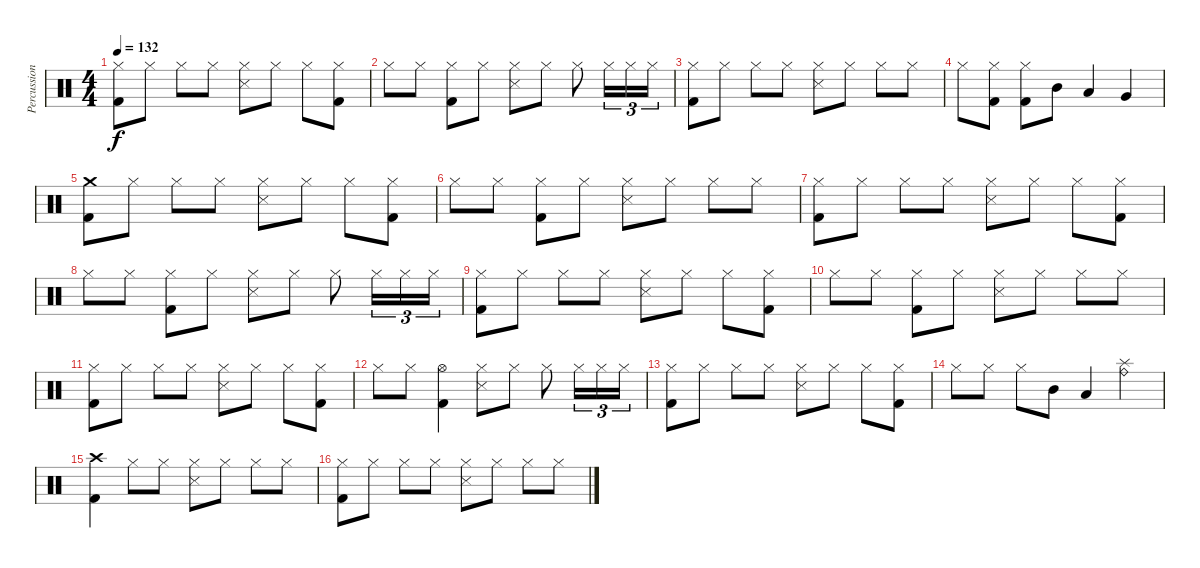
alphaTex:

\track ("Percussion" "Percussion") {instrument percussion}
\staff {score}
\articulation defaults
\ts (4 4)
\tempo 132
\clef neutral
\ks c
("Hi-Hat (closed)" "Kick (hit) 2").8{dy f} "Hi-Hat (closed)".8 "Hi-Hat (closed)".8 "Hi-Hat (closed)".8 ("Hi-Hat (closed)" "Snare (side stick) 3").8 "Hi-Hat (closed)".8 "Hi-Hat (closed)".8 ("Hi-Hat (closed)" "Kick (hit) 2").8 |
"Hi-Hat (closed)".8 "Hi-Hat (closed)".8 ("Hi-Hat (closed)" "Kick (hit) 2").8 "Hi-Hat (closed)".8 ("Hi-Hat (closed)" "Snare (side stick) 3").8 "Hi-Hat (closed)".8 "Hi-Hat (closed)".8 "Hi-Hat (closed)".16{tu (3 2)} "Hi-Hat (closed)".16{tu (3 2)} "Hi-Hat (closed)".16{tu (3 2)} |
("Hi-Hat (closed)" "Kick (hit) 2").8 "Hi-Hat (closed)".8 "Hi-Hat (closed)".8 "Hi-Hat (closed)".8 ("Hi-Hat (closed)" "Snare (side stick) 3").8 "Hi-Hat (closed)".8 "Hi-Hat (closed)".8 "Hi-Hat (closed)".8 |
"Hi-Hat (closed)".8 ("Hi-Hat (closed)" "Kick (hit) 2").8 ("Hi-Hat (closed)" "Kick (hit) 2").8 "Mid Tom (hit)".8 "Low Tom (hit)".4 "Very Low Tom (hit)".4 |
("Crash medium (hit)" "Kick (hit) 2").8 "Hi-Hat (closed)".8 "Hi-Hat (closed)".8 "Hi-Hat (closed)".8 ("Hi-Hat (closed)" "Snare (side stick) 3").8 "Hi-Hat (closed)".8 "Hi-Hat (closed)".8 ("Hi-Hat (closed)" "Kick (hit) 2").8 |
"Hi-Hat (closed)".8 "Hi-Hat (closed)".8 ("Hi-Hat (closed)" "Kick (hit) 2").8 "Hi-Hat (closed)".8 ("Hi-Hat (closed)" "Snare (side stick) 3").8 "Hi-Hat (closed)".8 "Hi-Hat (closed)".8 "Hi-Hat (closed)".8 |
("Hi-Hat (closed)" "Kick (hit) 2").8 "Hi-Hat (closed)".8 "Hi-Hat (closed)".8 "Hi-Hat (closed)".8 ("Hi-Hat (closed)" "Snare (side stick) 3").8 "Hi-Hat (closed)".8 "Hi-Hat (closed)".8 ("Hi-Hat (closed)" "Kick (hit) 2").8 |
"Hi-Hat (closed)".8 "Hi-Hat (closed)".8 ("Hi-Hat (closed)" "Kick (hit) 2").8 "Hi-Hat (closed)".8 ("Hi-Hat (closed)" "Snare (side stick) 3").8 "Hi-Hat (closed)".8 "Hi-Hat (closed)".8 "Hi-Hat (closed)".16{tu (3 2)} "Hi-Hat (closed)".16{tu (3 2)} "Hi-Hat (closed)".16{tu (3 2)} |
("Hi-Hat (closed)" "Kick (hit) 2").8 "Hi-Hat (closed)".8 "Hi-Hat (closed)".8 "Hi-Hat (closed)".8 ("Hi-Hat (closed)" "Snare (side stick) 3").8 "Hi-Hat (closed)".8 "Hi-Hat (closed)".8 ("Hi-Hat (closed)" "Kick (hit) 2").8 |
"Hi-Hat (closed)".8 "Hi-Hat (closed)".8 ("Hi-Hat (closed)" "Kick (hit) 2").8 "Hi-Hat (closed)".8 ("Hi-Hat (closed)" "Snare (side stick) 3").8 "Hi-Hat (closed)".8 "Hi-Hat (closed)".8 "Hi-Hat (closed)".8 |
("Hi-Hat (closed)" "Kick (hit) 2").8 "Hi-Hat (closed)".8 "Hi-Hat (closed)".8 "Hi-Hat (closed)".8 ("Hi-Hat (closed)" "Snare (side stick) 3").8 "Hi-Hat (closed)".8 "Hi-Hat (closed)".8 ("Hi-Hat (closed)" "Kick (hit) 2").8 |
"Hi-Hat (closed)".8 "Hi-Hat (closed)".8 ("Hi-Hat (open)" "Kick (hit) 2").4 ("Hi-Hat (closed)" "Snare (side stick) 3").8 "Hi-Hat (closed)".8 "Hi-Hat (closed)".8 "Hi-Hat (closed)".16{tu (3 2)} "Hi-Hat (closed)".16{tu (3 2)} "Hi-Hat (closed)".16{tu (3 2)} |
("Hi-Hat (closed)" "Kick (hit) 2").8 "Hi-Hat (closed)".8 "Hi-Hat (closed)".8 "Hi-Hat (closed)".8 ("Hi-Hat (closed)" "Snare (side stick) 3").8 "Hi-Hat (closed)".8 "Hi-Hat (closed)".8 ("Hi-Hat (closed)" "Kick (hit) 2").8 |
"Hi-Hat (closed)".8 "Hi-Hat (closed)".8 "Hi-Hat (closed)".8 "Mid Tom (hit)".8 "Low Tom (hit)".4 ("Ride (bell)" "Splash (hit)").4 |
("Crash high (hit)" "Kick (hit) 2").4 "Hi-Hat (closed)".8 "Hi-Hat (closed)".8 ("Hi-Hat (closed)" "Snare (side stick) 3").8 "Hi-Hat (closed)".8 "Hi-Hat (closed)".8 "Hi-Hat (closed)".8 |
("Hi-Hat (closed)" "Kick (hit) 2").8 "Hi-Hat (closed)".8 "Hi-Hat (closed)".8 "Hi-Hat (closed)".8 ("Hi-Hat (closed)" "Snare (side stick) 3").8 "Hi-Hat (closed)".8 "Hi-Hat (closed)".8 "Hi-Hat (closed)".8
